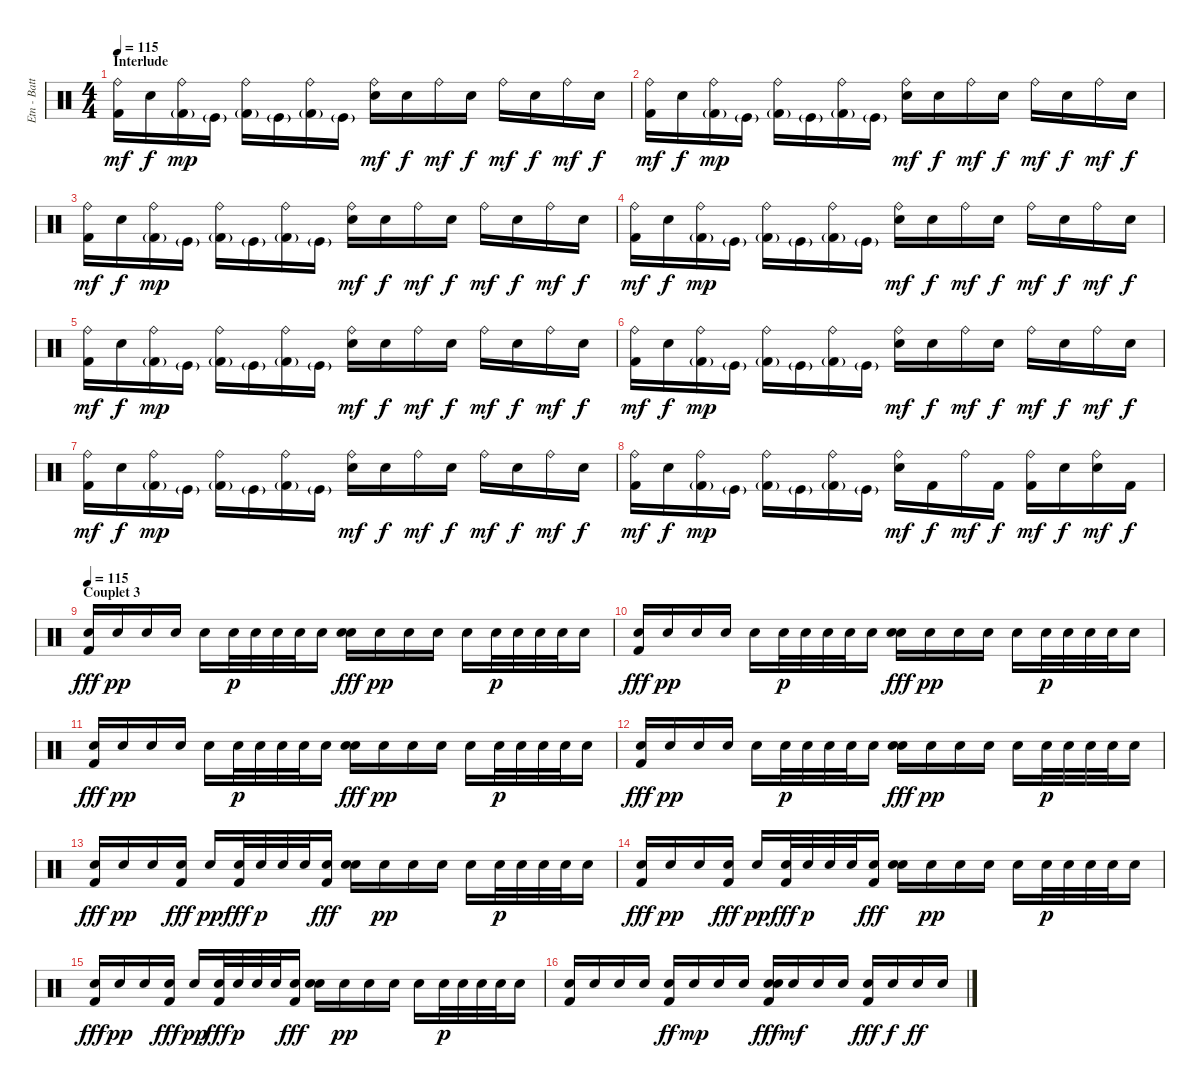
\track ("Etn - Batterie" "Etn - Batt") {instrument percussion}
\staff {score}
\articulation defaults
\ts (4 4)
\section ("" "Interlude")
\tempo 115
\clef neutral
\ks c
("Ride (bell)" "Kick (hit) 2").16{dy mf volume 16 balance 8} "Snare (hit)".16{dy f} ("Ride (bell)" "Kick (hit) 2"{g}).16{dy mp} "Kick (hit)"{g}.16 ("Ride (bell)" "Kick (hit) 2"{g}).16 "Kick (hit)"{g}.16 ("Ride (bell)" "Kick (hit) 2"{g}).16 "Kick (hit)"{g}.16 ("Ride (bell)" "Electric Snare (hit)").16{dy mf} "Snare (hit)".16{dy f} "Ride (bell)".16{dy mf} "Snare (hit)".16{dy f} "Ride (bell)".16{dy mf} "Snare (hit)".16{dy f} "Ride (bell)".16{dy mf} "Snare (hit)".16{dy f} |
("Ride (bell)" "Kick (hit) 2").16{dy mf} "Snare (hit)".16{dy f} ("Ride (bell)" "Kick (hit) 2"{g}).16{dy mp} "Kick (hit)"{g}.16 ("Ride (bell)" "Kick (hit) 2"{g}).16 "Kick (hit)"{g}.16 ("Ride (bell)" "Kick (hit) 2"{g}).16 "Kick (hit)"{g}.16 ("Ride (bell)" "Electric Snare (hit)").16{dy mf} "Snare (hit)".16{dy f} "Ride (bell)".16{dy mf} "Snare (hit)".16{dy f} "Ride (bell)".16{dy mf} "Snare (hit)".16{dy f} "Ride (bell)".16{dy mf} "Snare (hit)".16{dy f} |
("Ride (bell)" "Kick (hit) 2").16{dy mf} "Snare (hit)".16{dy f} ("Ride (bell)" "Kick (hit) 2"{g}).16{dy mp} "Kick (hit)"{g}.16 ("Ride (bell)" "Kick (hit) 2"{g}).16 "Kick (hit)"{g}.16 ("Ride (bell)" "Kick (hit) 2"{g}).16 "Kick (hit)"{g}.16 ("Ride (bell)" "Electric Snare (hit)").16{dy mf} "Snare (hit)".16{dy f} "Ride (bell)".16{dy mf} "Snare (hit)".16{dy f} "Ride (bell)".16{dy mf} "Snare (hit)".16{dy f} "Ride (bell)".16{dy mf} "Snare (hit)".16{dy f} |
("Ride (bell)" "Kick (hit) 2").16{dy mf} "Snare (hit)".16{dy f} ("Ride (bell)" "Kick (hit) 2"{g}).16{dy mp} "Kick (hit)"{g}.16 ("Ride (bell)" "Kick (hit) 2"{g}).16 "Kick (hit)"{g}.16 ("Ride (bell)" "Kick (hit) 2"{g}).16 "Kick (hit)"{g}.16 ("Ride (bell)" "Electric Snare (hit)").16{dy mf} "Snare (hit)".16{dy f} "Ride (bell)".16{dy mf} "Snare (hit)".16{dy f} "Ride (bell)".16{dy mf} "Snare (hit)".16{dy f} "Ride (bell)".16{dy mf} "Snare (hit)".16{dy f} |
("Ride (bell)" "Kick (hit) 2").16{dy mf} "Snare (hit)".16{dy f} ("Ride (bell)" "Kick (hit) 2"{g}).16{dy mp} "Kick (hit)"{g}.16 ("Ride (bell)" "Kick (hit) 2"{g}).16 "Kick (hit)"{g}.16 ("Ride (bell)" "Kick (hit) 2"{g}).16 "Kick (hit)"{g}.16 ("Ride (bell)" "Electric Snare (hit)").16{dy mf} "Snare (hit)".16{dy f} "Ride (bell)".16{dy mf} "Snare (hit)".16{dy f} "Ride (bell)".16{dy mf} "Snare (hit)".16{dy f} "Ride (bell)".16{dy mf} "Snare (hit)".16{dy f} |
("Ride (bell)" "Kick (hit) 2").16{dy mf} "Snare (hit)".16{dy f} ("Ride (bell)" "Kick (hit) 2"{g}).16{dy mp} "Kick (hit)"{g}.16 ("Ride (bell)" "Kick (hit) 2"{g}).16 "Kick (hit)"{g}.16 ("Ride (bell)" "Kick (hit) 2"{g}).16 "Kick (hit)"{g}.16 ("Ride (bell)" "Electric Snare (hit)").16{dy mf} "Snare (hit)".16{dy f} "Ride (bell)".16{dy mf} "Snare (hit)".16{dy f} "Ride (bell)".16{dy mf} "Snare (hit)".16{dy f} "Ride (bell)".16{dy mf} "Snare (hit)".16{dy f} |
("Ride (bell)" "Kick (hit) 2").16{dy mf} "Snare (hit)".16{dy f} ("Ride (bell)" "Kick (hit) 2"{g}).16{dy mp} "Kick (hit)"{g}.16 ("Ride (bell)" "Kick (hit) 2"{g}).16 "Kick (hit)"{g}.16 ("Ride (bell)" "Kick (hit) 2"{g}).16 "Kick (hit)"{g}.16 ("Ride (bell)" "Electric Snare (hit)").16{dy mf} "Snare (hit)".16{dy f} "Ride (bell)".16{dy mf} "Snare (hit)".16{dy f} "Ride (bell)".16{dy mf} "Snare (hit)".16{dy f} "Ride (bell)".16{dy mf} "Snare (hit)".16{dy f} |
("Ride (bell)" "Kick (hit) 2").16{dy mf} "Snare (hit)".16{dy f} ("Ride (bell)" "Kick (hit) 2"{g}).16{dy mp} "Kick (hit)"{g}.16 ("Ride (bell)" "Kick (hit) 2"{g}).16 "Kick (hit)"{g}.16 ("Ride (bell)" "Kick (hit) 2"{g}).16 "Kick (hit)"{g}.16 ("Ride (bell)" "Electric Snare (hit)").16{dy mf} "Kick (hit) 2".16{dy f} "Ride (bell)".16{dy mf} "Kick (hit) 2".16{dy f} ("Ride (bell)" "Kick (hit) 2").16{dy mf} "Snare (hit)".16{dy f} ("Ride (bell)" "Electric Snare (hit)").16{dy mf} "Kick (hit) 2".16{dy f} |
\section ("" "Couplet 3")
\tempo 115
("Electric Snare (hit)" "Kick (hit) 2").16{dy fff volume 16 balance 8} "Electric Snare (hit)".16{dy pp} "Electric Snare (hit)".16 "Electric Snare (hit)".16 "Electric Snare (hit)".16 "Electric Snare (hit)".32{dy p} "Electric Snare (hit)".32 "Electric Snare (hit)".32 "Electric Snare (hit)".32 "Electric Snare (hit)".16 ("Electric Snare (hit)" "Electric Snare (hit)").16{dy fff} "Electric Snare (hit)".16{dy pp} "Electric Snare (hit)".16 "Electric Snare (hit)".16 "Electric Snare (hit)".16 "Electric Snare (hit)".32{dy p} "Electric Snare (hit)".32 "Electric Snare (hit)".32 "Electric Snare (hit)".32 "Electric Snare (hit)".16 |
("Electric Snare (hit)" "Kick (hit) 2").16{dy fff} "Electric Snare (hit)".16{dy pp} "Electric Snare (hit)".16 "Electric Snare (hit)".16 "Electric Snare (hit)".16 "Electric Snare (hit)".32{dy p} "Electric Snare (hit)".32 "Electric Snare (hit)".32 "Electric Snare (hit)".32 "Electric Snare (hit)".16 ("Electric Snare (hit)" "Electric Snare (hit)").16{dy fff} "Electric Snare (hit)".16{dy pp} "Electric Snare (hit)".16 "Electric Snare (hit)".16 "Electric Snare (hit)".16 "Electric Snare (hit)".32{dy p} "Electric Snare (hit)".32 "Electric Snare (hit)".32 "Electric Snare (hit)".32 "Electric Snare (hit)".16 |
("Electric Snare (hit)" "Kick (hit) 2").16{dy fff} "Electric Snare (hit)".16{dy pp} "Electric Snare (hit)".16 "Electric Snare (hit)".16 "Electric Snare (hit)".16 "Electric Snare (hit)".32{dy p} "Electric Snare (hit)".32 "Electric Snare (hit)".32 "Electric Snare (hit)".32 "Electric Snare (hit)".16 ("Electric Snare (hit)" "Electric Snare (hit)").16{dy fff} "Electric Snare (hit)".16{dy pp} "Electric Snare (hit)".16 "Electric Snare (hit)".16 "Electric Snare (hit)".16 "Electric Snare (hit)".32{dy p} "Electric Snare (hit)".32 "Electric Snare (hit)".32 "Electric Snare (hit)".32 "Electric Snare (hit)".16 |
("Electric Snare (hit)" "Kick (hit) 2").16{dy fff} "Electric Snare (hit)".16{dy pp} "Electric Snare (hit)".16 "Electric Snare (hit)".16 "Electric Snare (hit)".16 "Electric Snare (hit)".32{dy p} "Electric Snare (hit)".32 "Electric Snare (hit)".32 "Electric Snare (hit)".32 "Electric Snare (hit)".16 ("Electric Snare (hit)" "Electric Snare (hit)").16{dy fff} "Electric Snare (hit)".16{dy pp} "Electric Snare (hit)".16 "Electric Snare (hit)".16 "Electric Snare (hit)".16 "Electric Snare (hit)".32{dy p} "Electric Snare (hit)".32 "Electric Snare (hit)".32 "Electric Snare (hit)".32 "Electric Snare (hit)".16 |
("Electric Snare (hit)" "Kick (hit) 2").16{dy fff} "Electric Snare (hit)".16{dy pp} "Electric Snare (hit)".16 ("Electric Snare (hit)" "Kick (hit) 2").16{dy fff} "Electric Snare (hit)".16{dy pp} ("Electric Snare (hit)" "Kick (hit) 2").32{dy fff} "Electric Snare (hit)".32{dy p} "Electric Snare (hit)".32 "Electric Snare (hit)".32 ("Electric Snare (hit)" "Kick (hit) 2").16{dy fff} ("Electric Snare (hit)" "Electric Snare (hit)").16 "Electric Snare (hit)".16{dy pp} "Electric Snare (hit)".16 "Electric Snare (hit)".16 "Electric Snare (hit)".16 "Electric Snare (hit)".32{dy p} "Electric Snare (hit)".32 "Electric Snare (hit)".32 "Electric Snare (hit)".32 "Electric Snare (hit)".16 |
("Electric Snare (hit)" "Kick (hit) 2").16{dy fff} "Electric Snare (hit)".16{dy pp} "Electric Snare (hit)".16 ("Electric Snare (hit)" "Kick (hit) 2").16{dy fff} "Electric Snare (hit)".16{dy pp} ("Electric Snare (hit)" "Kick (hit) 2").32{dy fff} "Electric Snare (hit)".32{dy p} "Electric Snare (hit)".32 "Electric Snare (hit)".32 ("Electric Snare (hit)" "Kick (hit) 2").16{dy fff} ("Electric Snare (hit)" "Electric Snare (hit)").16 "Electric Snare (hit)".16{dy pp} "Electric Snare (hit)".16 "Electric Snare (hit)".16 "Electric Snare (hit)".16 "Electric Snare (hit)".32{dy p} "Electric Snare (hit)".32 "Electric Snare (hit)".32 "Electric Snare (hit)".32 "Electric Snare (hit)".16 |
("Electric Snare (hit)" "Kick (hit) 2").16{dy fff} "Electric Snare (hit)".16{dy pp} "Electric Snare (hit)".16 ("Electric Snare (hit)" "Kick (hit) 2").16{dy fff} "Electric Snare (hit)".16{dy pp} ("Electric Snare (hit)" "Kick (hit) 2").32{dy fff} "Electric Snare (hit)".32{dy p} "Electric Snare (hit)".32 "Electric Snare (hit)".32 ("Electric Snare (hit)" "Kick (hit) 2").16{dy fff} ("Electric Snare (hit)" "Electric Snare (hit)").16 "Electric Snare (hit)".16{dy pp} "Electric Snare (hit)".16 "Electric Snare (hit)".16 "Electric Snare (hit)".16 "Electric Snare (hit)".32{dy p} "Electric Snare (hit)".32 "Electric Snare (hit)".32 "Electric Snare (hit)".32 "Electric Snare (hit)".16 |
("Electric Snare (hit)" "Kick (hit) 2").16 "Electric Snare (hit)".16 "Electric Snare (hit)".16 "Electric Snare (hit)".16 ("Electric Snare (hit)" "Kick (hit) 2").16{dy ff} "Electric Snare (hit)".16{dy mp} "Electric Snare (hit)".16 "Electric Snare (hit)".16 ("Electric Snare (hit)" "Electric Snare (hit)" "Kick (hit) 2").16{dy fff} "Electric Snare (hit)".16{dy mf} "Electric Snare (hit)".16 "Electric Snare (hit)".16 ("Electric Snare (hit)" "Kick (hit) 2").16{dy fff} "Electric Snare (hit)".16{dy f} "Electric Snare (hit)".16{dy ff} "Electric Snare (hit)".16
